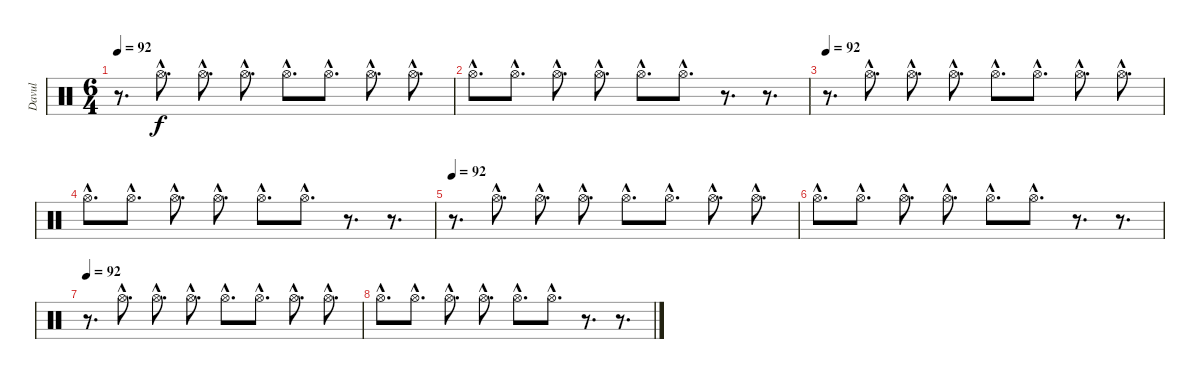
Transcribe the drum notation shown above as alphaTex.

\track ("Davul" "Davul") {instrument percussion}
\staff {score}
\articulation defaults
\ts (6 4)
\tempo 92
\clef neutral
\ks c
r.8{d dy f} "Hi-Hat (open)"{hac}.8{d} "Hi-Hat (open)"{hac}.8{d} "Hi-Hat (open)"{hac}.8{d} "Hi-Hat (open)"{hac}.8{d} "Hi-Hat (open)"{hac}.8{d} "Hi-Hat (open)"{hac}.8{d} "Hi-Hat (open)"{hac}.8{d} |
"Hi-Hat (open)"{hac}.8{d} "Hi-Hat (open)"{hac}.8{d} "Hi-Hat (open)"{hac}.8{d} "Hi-Hat (open)"{hac}.8{d} "Hi-Hat (open)"{hac}.8{d} "Hi-Hat (open)"{hac}.8{d} r.8{d} r.8{d} |
\tempo 92
r.8{d} "Hi-Hat (open)"{hac}.8{d} "Hi-Hat (open)"{hac}.8{d} "Hi-Hat (open)"{hac}.8{d} "Hi-Hat (open)"{hac}.8{d} "Hi-Hat (open)"{hac}.8{d} "Hi-Hat (open)"{hac}.8{d} "Hi-Hat (open)"{hac}.8{d} |
"Hi-Hat (open)"{hac}.8{d} "Hi-Hat (open)"{hac}.8{d} "Hi-Hat (open)"{hac}.8{d} "Hi-Hat (open)"{hac}.8{d} "Hi-Hat (open)"{hac}.8{d} "Hi-Hat (open)"{hac}.8{d} r.8{d} r.8{d} |
\tempo 92
r.8{d} "Hi-Hat (open)"{hac}.8{d} "Hi-Hat (open)"{hac}.8{d} "Hi-Hat (open)"{hac}.8{d} "Hi-Hat (open)"{hac}.8{d} "Hi-Hat (open)"{hac}.8{d} "Hi-Hat (open)"{hac}.8{d} "Hi-Hat (open)"{hac}.8{d} |
"Hi-Hat (open)"{hac}.8{d} "Hi-Hat (open)"{hac}.8{d} "Hi-Hat (open)"{hac}.8{d} "Hi-Hat (open)"{hac}.8{d} "Hi-Hat (open)"{hac}.8{d} "Hi-Hat (open)"{hac}.8{d} r.8{d} r.8{d} |
\tempo 92
r.8{d} "Hi-Hat (open)"{hac}.8{d} "Hi-Hat (open)"{hac}.8{d} "Hi-Hat (open)"{hac}.8{d} "Hi-Hat (open)"{hac}.8{d} "Hi-Hat (open)"{hac}.8{d} "Hi-Hat (open)"{hac}.8{d} "Hi-Hat (open)"{hac}.8{d} |
"Hi-Hat (open)"{hac}.8{d} "Hi-Hat (open)"{hac}.8{d} "Hi-Hat (open)"{hac}.8{d} "Hi-Hat (open)"{hac}.8{d} "Hi-Hat (open)"{hac}.8{d} "Hi-Hat (open)"{hac}.8{d} r.8{d} r.8{d}
